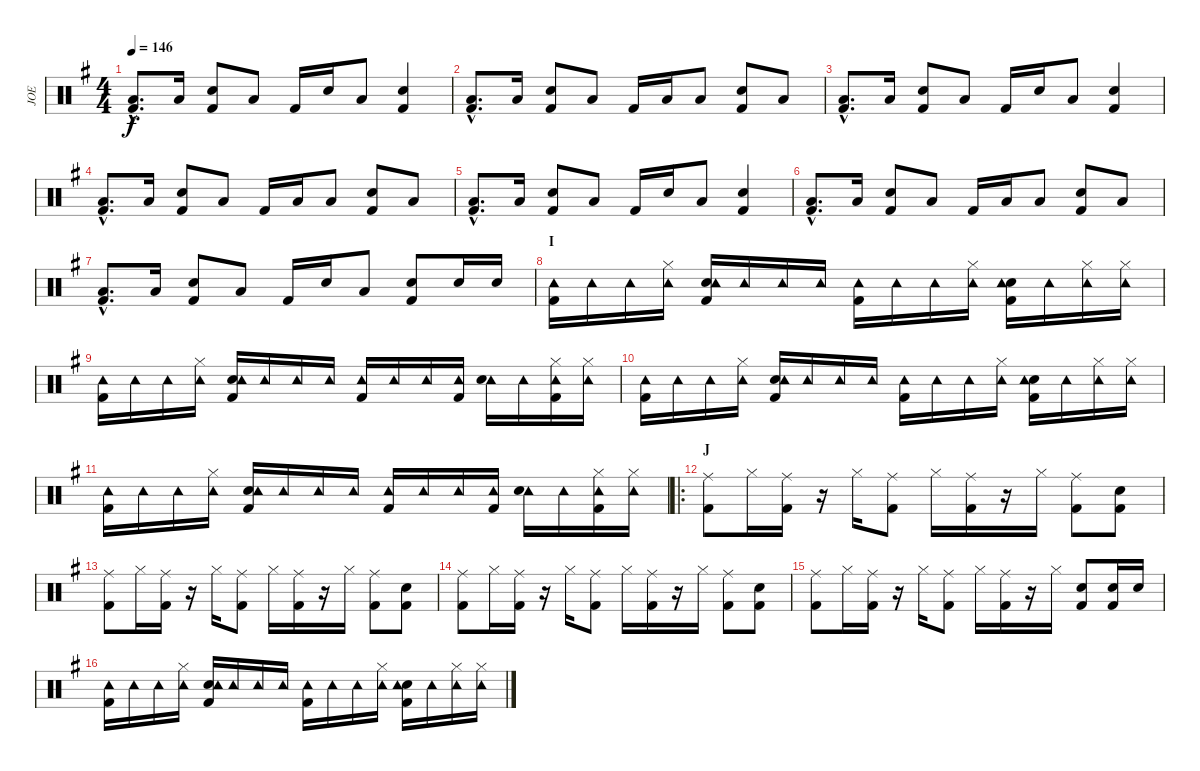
\track ("JOE" "JOE") {instrument percussion}
\staff {score}
\articulation defaults
\ts (4 4)
\tempo 146
\clef neutral
\ks eminor
("Low Floor Tom (hit)"{hac} "Kick (hit) 2"{hac}).8{d dy f} "Low Floor Tom (hit)".16 ("Snare (hit) 2" "Kick (hit) 2").8 "Low Floor Tom (hit)".8 "Kick (hit) 2".16 "Snare (hit) 2".16 "Low Floor Tom (hit)".8 ("Snare (hit) 2" "Kick (hit) 2").4 |
("Low Floor Tom (hit)"{hac} "Kick (hit) 2"{hac}).8{d} "Low Floor Tom (hit)".16 ("Snare (hit) 2" "Kick (hit) 2").8 "Low Floor Tom (hit)".8 "Kick (hit) 2".16 "Low Floor Tom (hit)".16 "Low Floor Tom (hit)".8 ("Snare (hit) 2" "Kick (hit) 2").8 "Low Floor Tom (hit)".8 |
("Low Floor Tom (hit)"{hac} "Kick (hit) 2"{hac}).8{d} "Low Floor Tom (hit)".16 ("Snare (hit) 2" "Kick (hit) 2").8 "Low Floor Tom (hit)".8 "Kick (hit) 2".16 "Snare (hit) 2".16 "Low Floor Tom (hit)".8 ("Snare (hit) 2" "Kick (hit) 2").4 |
("Low Floor Tom (hit)"{hac} "Kick (hit) 2"{hac}).8{d} "Low Floor Tom (hit)".16 ("Snare (hit) 2" "Kick (hit) 2").8 "Low Floor Tom (hit)".8 "Kick (hit) 2".16 "Low Floor Tom (hit)".16 "Low Floor Tom (hit)".8 ("Snare (hit) 2" "Kick (hit) 2").8 "Low Floor Tom (hit)".8 |
("Low Floor Tom (hit)"{hac} "Kick (hit) 2"{hac}).8{d} "Low Floor Tom (hit)".16 ("Snare (hit) 2" "Kick (hit) 2").8 "Low Floor Tom (hit)".8 "Kick (hit) 2".16 "Snare (hit) 2".16 "Low Floor Tom (hit)".8 ("Snare (hit) 2" "Kick (hit) 2").4 |
("Low Floor Tom (hit)"{hac} "Kick (hit) 2"{hac}).8{d} "Low Floor Tom (hit)".16 ("Snare (hit) 2" "Kick (hit) 2").8 "Low Floor Tom (hit)".8 "Kick (hit) 2".16 "Low Floor Tom (hit)".16 "Low Floor Tom (hit)".8 ("Snare (hit) 2" "Kick (hit) 2").8 "Low Floor Tom (hit)".8 |
("Low Floor Tom (hit)"{hac} "Kick (hit) 2"{hac}).8{d} "Low Floor Tom (hit)".16 ("Snare (hit) 2" "Kick (hit) 2").8 "Low Floor Tom (hit)".8 "Kick (hit) 2".16 "Snare (hit) 2".16 "Low Floor Tom (hit)".8 ("Snare (hit) 2" "Kick (hit) 2").8 "Snare (hit) 2".16 "Snare (hit) 2".16 |
\section ("" "I")
("Tambourine (hit)" "Kick (hit) 2").16 "Tambourine (hit)".16 "Tambourine (hit)".16 ("Hi-Hat (closed)" "Tambourine (hit)").16 ("Snare (hit) 2" "Tambourine (hit)" "Kick (hit) 2").16 "Tambourine (hit)".16 "Tambourine (hit)".16 "Tambourine (hit)".16 ("Tambourine (hit)" "Kick (hit) 2").16 "Tambourine (hit)".16 "Tambourine (hit)".16 ("Hi-Hat (closed)" "Tambourine (hit)").16 ("Snare (hit) 2" "Tambourine (hit)" "Kick (hit) 2").16 "Tambourine (hit)".16 ("Hi-Hat (closed)" "Tambourine (hit)").16 ("Hi-Hat (closed)" "Tambourine (hit)").16 |
("Tambourine (hit)" "Kick (hit) 2").16 "Tambourine (hit)".16 "Tambourine (hit)".16 ("Hi-Hat (closed)" "Tambourine (hit)").16 ("Snare (hit) 2" "Tambourine (hit)" "Kick (hit) 2").16 "Tambourine (hit)".16 "Tambourine (hit)".16 "Tambourine (hit)".16 ("Tambourine (hit)" "Kick (hit) 2").16 "Tambourine (hit)".16 "Tambourine (hit)".16 ("Tambourine (hit)" "Kick (hit) 2").16 ("Tambourine (hit)" "Snare (hit) 2").16 "Tambourine (hit)".16 ("Hi-Hat (closed)" "Tambourine (hit)" "Kick (hit) 2").16 ("Hi-Hat (closed)" "Tambourine (hit)").16 |
("Tambourine (hit)" "Kick (hit) 2").16 "Tambourine (hit)".16 "Tambourine (hit)".16 ("Hi-Hat (closed)" "Tambourine (hit)").16 ("Snare (hit) 2" "Tambourine (hit)" "Kick (hit) 2").16 "Tambourine (hit)".16 "Tambourine (hit)".16 "Tambourine (hit)".16 ("Tambourine (hit)" "Kick (hit) 2").16 "Tambourine (hit)".16 "Tambourine (hit)".16 ("Hi-Hat (closed)" "Tambourine (hit)").16 ("Snare (hit) 2" "Tambourine (hit)" "Kick (hit) 2").16 "Tambourine (hit)".16 ("Hi-Hat (closed)" "Tambourine (hit)").16 ("Hi-Hat (closed)" "Tambourine (hit)").16 |
("Tambourine (hit)" "Kick (hit) 2").16 "Tambourine (hit)".16 "Tambourine (hit)".16 ("Hi-Hat (closed)" "Tambourine (hit)").16 ("Snare (hit) 2" "Tambourine (hit)" "Kick (hit) 2").16 "Tambourine (hit)".16 "Tambourine (hit)".16 "Tambourine (hit)".16 ("Tambourine (hit)" "Kick (hit) 2").16 "Tambourine (hit)".16 "Tambourine (hit)".16 ("Tambourine (hit)" "Kick (hit) 2").16 ("Tambourine (hit)" "Snare (hit) 2").16 "Tambourine (hit)".16 ("Hi-Hat (closed)" "Tambourine (hit)" "Kick (hit) 2").16 ("Hi-Hat (closed)" "Tambourine (hit)").16 |
\ro
\section ("" "J")
("Ride (middle)" "Kick (hit) 2").8 "Hi-Hat (closed)".16 ("Ride (middle)" "Kick (hit) 2").16 r.16 "Hi-Hat (closed)".16 ("Ride (middle)" "Kick (hit) 2").8 "Hi-Hat (closed)".16 ("Ride (middle)" "Kick (hit) 2").16 r.16 "Hi-Hat (closed)".16 ("Ride (middle)" "Kick (hit) 2").8 ("Snare (hit) 2" "Kick (hit) 2").8 |
("Ride (middle)" "Kick (hit) 2").8 "Hi-Hat (closed)".16 ("Ride (middle)" "Kick (hit) 2").16 r.16 "Hi-Hat (closed)".16 ("Ride (middle)" "Kick (hit) 2").8 "Hi-Hat (closed)".16 ("Ride (middle)" "Kick (hit) 2").16 r.16 "Hi-Hat (closed)".16 ("Ride (middle)" "Kick (hit) 2").8 ("Snare (hit) 2" "Kick (hit) 2").8 |
("Ride (middle)" "Kick (hit) 2").8 "Hi-Hat (closed)".16 ("Ride (middle)" "Kick (hit) 2").16 r.16 "Hi-Hat (closed)".16 ("Ride (middle)" "Kick (hit) 2").8 "Hi-Hat (closed)".16 ("Ride (middle)" "Kick (hit) 2").16 r.16 "Hi-Hat (closed)".16 ("Ride (middle)" "Kick (hit) 2").8 ("Snare (hit) 2" "Kick (hit) 2").8 |
("Ride (middle)" "Kick (hit) 2").8 "Hi-Hat (closed)".16 ("Ride (middle)" "Kick (hit) 2").16 r.16 "Hi-Hat (closed)".16 ("Ride (middle)" "Kick (hit) 2").8 "Hi-Hat (closed)".16 ("Ride (middle)" "Kick (hit) 2").16 r.16 "Hi-Hat (closed)".16 ("Snare (hit) 2" "Kick (hit) 2").8 ("Snare (hit) 2" "Kick (hit) 2").16 "Snare (hit) 2".16 |
("Tambourine (hit)" "Kick (hit) 2").16 "Tambourine (hit)".16 "Tambourine (hit)".16 ("Hi-Hat (closed)" "Tambourine (hit)").16 ("Snare (hit) 2" "Tambourine (hit)" "Kick (hit) 2").16 "Tambourine (hit)".16 "Tambourine (hit)".16 "Tambourine (hit)".16 ("Tambourine (hit)" "Kick (hit) 2").16 "Tambourine (hit)".16 "Tambourine (hit)".16 ("Hi-Hat (closed)" "Tambourine (hit)").16 ("Snare (hit) 2" "Tambourine (hit)" "Kick (hit) 2").16 "Tambourine (hit)".16 ("Hi-Hat (closed)" "Tambourine (hit)").16 ("Hi-Hat (closed)" "Tambourine (hit)").16
